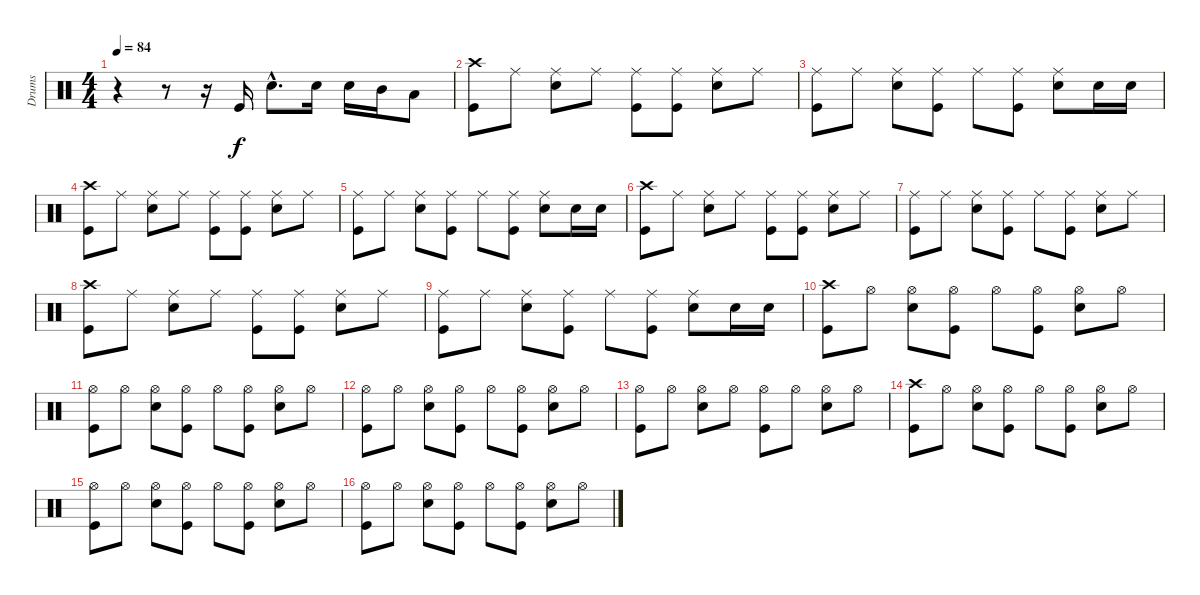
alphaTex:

\track ("Drums" "Drums") {instrument percussion}
\staff {score}
\articulation defaults
\ts (4 4)
\tempo 84
\clef neutral
\ks c
r.4{dy f} r.8 r.16 "Kick (hit)".16 "Snare (hit) 2"{hac}.8{d} "Snare (hit) 2".16 "Snare (hit) 2".16 "Mid Tom (hit)".16 "Low Tom (hit)".8 |
("Crash high (hit)" "Kick (hit)").8 "Ride (middle)".8 ("Ride (middle)" "Snare (hit) 2").8 "Ride (middle)".8 ("Ride (middle)" "Kick (hit)").8 ("Ride (middle)" "Kick (hit)").8 ("Ride (middle)" "Snare (hit) 2").8 "Ride (middle)".8 |
("Ride (middle)" "Kick (hit)").8 "Ride (middle)".8 ("Ride (middle)" "Snare (hit) 2").8 ("Ride (middle)" "Kick (hit)").8 "Ride (middle)".8 ("Ride (middle)" "Kick (hit)").8 ("Ride (middle)" "Snare (hit) 2").8 "Snare (hit) 2".16 "Snare (hit) 2".16 |
("Crash high (hit)" "Kick (hit)").8 "Ride (middle)".8 ("Ride (middle)" "Snare (hit) 2").8 "Ride (middle)".8 ("Ride (middle)" "Kick (hit)").8 ("Ride (middle)" "Kick (hit)").8 ("Ride (middle)" "Snare (hit) 2").8 "Ride (middle)".8 |
("Ride (middle)" "Kick (hit)").8 "Ride (middle)".8 ("Ride (middle)" "Snare (hit) 2").8 ("Ride (middle)" "Kick (hit)").8 "Ride (middle)".8 ("Ride (middle)" "Kick (hit)").8 ("Ride (middle)" "Snare (hit) 2").8 "Snare (hit) 2".16 "Snare (hit) 2".16 |
("Crash high (hit)" "Kick (hit)").8 "Ride (middle)".8 ("Ride (middle)" "Snare (hit) 2").8 "Ride (middle)".8 ("Ride (middle)" "Kick (hit)").8 ("Ride (middle)" "Kick (hit)").8 ("Ride (middle)" "Snare (hit) 2").8 "Ride (middle)".8 |
("Ride (middle)" "Kick (hit)").8 "Ride (middle)".8 ("Ride (middle)" "Snare (hit) 2").8 ("Ride (middle)" "Kick (hit)").8 "Ride (middle)".8 ("Ride (middle)" "Kick (hit)").8 ("Ride (middle)" "Snare (hit) 2").8 "Ride (middle)".8 |
("Crash high (hit)" "Kick (hit)").8 "Ride (middle)".8 ("Ride (middle)" "Snare (hit) 2").8 "Ride (middle)".8 ("Ride (middle)" "Kick (hit)").8 ("Ride (middle)" "Kick (hit)").8 ("Ride (middle)" "Snare (hit) 2").8 "Ride (middle)".8 |
("Ride (middle)" "Kick (hit)").8 "Ride (middle)".8 ("Ride (middle)" "Snare (hit) 2").8 ("Ride (middle)" "Kick (hit)").8 "Ride (middle)".8 ("Ride (middle)" "Kick (hit)").8 ("Ride (middle)" "Snare (hit) 2").8 "Snare (hit) 2".16 "Snare (hit) 2".16 |
("Crash high (hit)" "Kick (hit)").8 "Hi-Hat (open)".8 ("Hi-Hat (open)" "Snare (hit) 2").8 ("Hi-Hat (open)" "Kick (hit)").8 "Hi-Hat (open)".8 ("Hi-Hat (open)" "Kick (hit)").8 ("Hi-Hat (open)" "Snare (hit) 2").8 "Hi-Hat (open)".8 |
("Hi-Hat (open)" "Kick (hit)").8 "Hi-Hat (open)".8 ("Hi-Hat (open)" "Snare (hit) 2").8 ("Hi-Hat (open)" "Kick (hit)").8 "Hi-Hat (open)".8 ("Hi-Hat (open)" "Kick (hit)").8 ("Hi-Hat (open)" "Snare (hit) 2").8 "Hi-Hat (open)".8 |
("Hi-Hat (open)" "Kick (hit)").8 "Hi-Hat (open)".8 ("Hi-Hat (open)" "Snare (hit) 2").8 ("Hi-Hat (open)" "Kick (hit)").8 "Hi-Hat (open)".8 ("Hi-Hat (open)" "Kick (hit)").8 ("Hi-Hat (open)" "Snare (hit) 2").8 "Hi-Hat (open)".8 |
("Hi-Hat (open)" "Kick (hit)").8 "Hi-Hat (open)".8 ("Hi-Hat (open)" "Snare (hit) 2").8 "Hi-Hat (open)".8 ("Hi-Hat (open)" "Kick (hit)").8 "Hi-Hat (open)".8 ("Hi-Hat (open)" "Snare (hit) 2").8 "Hi-Hat (open)".8 |
("Crash high (hit)" "Kick (hit)").8 "Hi-Hat (open)".8 ("Hi-Hat (open)" "Snare (hit) 2").8 ("Hi-Hat (open)" "Kick (hit)").8 "Hi-Hat (open)".8 ("Hi-Hat (open)" "Kick (hit)").8 ("Hi-Hat (open)" "Snare (hit) 2").8 "Hi-Hat (open)".8 |
("Hi-Hat (open)" "Kick (hit)").8 "Hi-Hat (open)".8 ("Hi-Hat (open)" "Snare (hit) 2").8 ("Hi-Hat (open)" "Kick (hit)").8 "Hi-Hat (open)".8 ("Hi-Hat (open)" "Kick (hit)").8 ("Hi-Hat (open)" "Snare (hit) 2").8 "Hi-Hat (open)".8 |
("Hi-Hat (open)" "Kick (hit)").8 "Hi-Hat (open)".8 ("Hi-Hat (open)" "Snare (hit) 2").8 ("Hi-Hat (open)" "Kick (hit)").8 "Hi-Hat (open)".8 ("Hi-Hat (open)" "Kick (hit)").8 ("Hi-Hat (open)" "Snare (hit) 2").8 "Hi-Hat (open)".8
